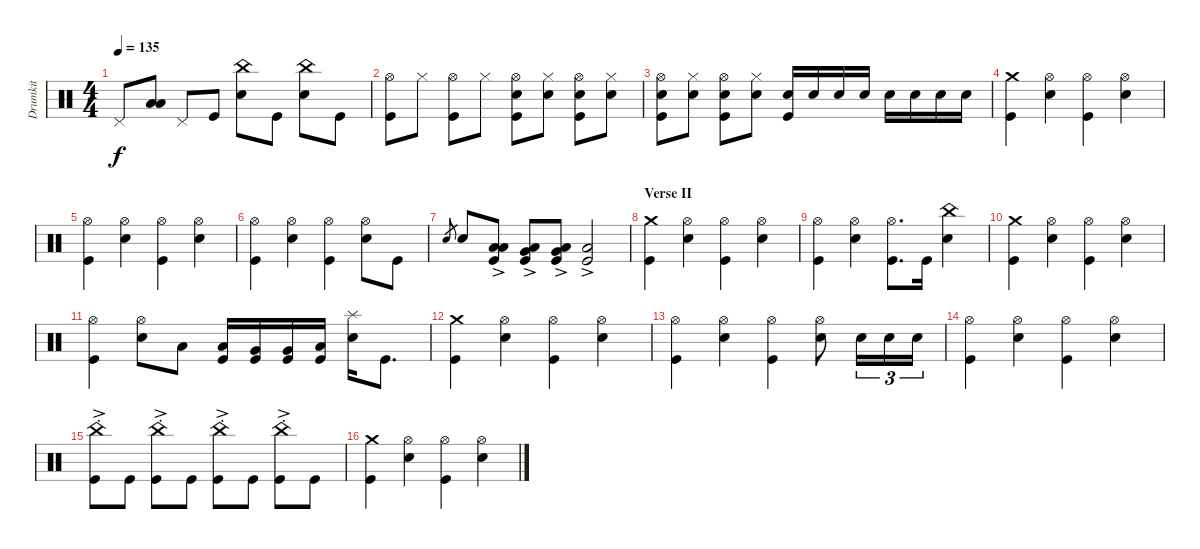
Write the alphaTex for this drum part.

\track ("Drumkit" "Drumkit") {instrument percussion}
\staff {score}
\articulation defaults
\ts (4 4)
\tempo 135
\clef neutral
\ks c "Pedal Hi-Hat (hit)".8{dy f}
("Low Tom (hit)" "Low Floor Tom (hit)").8 "Pedal Hi-Hat (hit)".8 "Kick (hit)".8 ("Snare (hit) 2" "China (hit)").8 "Kick (hit)".8 ("Snare (hit) 2" "China (hit)").8 "Kick (hit)".8 |
("Kick (hit)" "Hi-Hat (open)").8 "Hi-Hat (closed)".8 ("Hi-Hat (open)" "Kick (hit)").8 "Hi-Hat (closed)".8 ("Kick (hit)" "Hi-Hat (open)" "Snare (hit) 2").8 ("Hi-Hat (closed)" "Snare (hit) 2").8 ("Hi-Hat (open)" "Kick (hit)" "Snare (hit) 2").8 ("Hi-Hat (closed)" "Snare (hit) 2").8 |
("Kick (hit)" "Hi-Hat (open)" "Snare (hit) 2").8 ("Hi-Hat (closed)" "Snare (hit) 2").8 ("Hi-Hat (open)" "Kick (hit)" "Snare (hit) 2").8 ("Hi-Hat (closed)" "Snare (hit) 2").8 ("Snare (hit) 2" "Kick (hit)").16 "Snare (hit) 2".16 "Snare (hit) 2".16 "Snare (hit) 2".16 "Snare (hit) 2".16 "Snare (hit) 2".16 "Snare (hit) 2".16 "Snare (hit) 2".16 |
("Kick (hit)" "Crash medium (hit)").4 ("Snare (hit) 2" "Hi-Hat (open)").4 ("Kick (hit)" "Hi-Hat (open)").4 ("Snare (hit) 2" "Hi-Hat (open)").4 |
("Kick (hit)" "Hi-Hat (open)").4 ("Snare (hit) 2" "Hi-Hat (open)").4 ("Hi-Hat (open)" "Kick (hit)").4 ("Hi-Hat (open)" "Snare (hit) 2").4 |
("Kick (hit)" "Hi-Hat (open)").4 ("Snare (hit) 2" "Hi-Hat (open)").4 ("Hi-Hat (open)" "Kick (hit)").4 ("Hi-Hat (open)" "Snare (hit) 2").8 "Kick (hit)".8 |
"Snare (hit)".8{gr} "Snare (hit) 2".8 ("Kick (hit)" "Low Tom (hit)"{ac} "Low Floor Tom (hit)").8 ("Kick (hit)" "Low Floor Tom (hit)" "Very Low Tom (hit)"{ac}).8 ("Kick (hit)" "Very Low Tom (hit)"{ac} "Low Floor Tom (hit)").8 ("Kick (hit)" "Low Floor Tom (hit)"{ac}).2 |
\section ("" "Verse II")
("Kick (hit)" "Crash medium (hit)").4 ("Snare (hit) 2" "Hi-Hat (open)").4 ("Kick (hit)" "Hi-Hat (open)").4 ("Snare (hit) 2" "Hi-Hat (open)").4 |
("Kick (hit)" "Hi-Hat (open)").4 ("Snare (hit) 2" "Hi-Hat (open)").4 ("Kick (hit)" "Hi-Hat (open)").8{d} "Kick (hit)".16 ("Snare (hit) 2" "China (hit)").4 |
("Kick (hit)" "Crash medium (hit)").4 ("Snare (hit) 2" "Hi-Hat (open)").4 ("Kick (hit)" "Hi-Hat (open)").4 ("Snare (hit) 2" "Hi-Hat (open)").4 |
("Kick (hit)" "Hi-Hat (open)").4 ("Snare (hit) 2" "Hi-Hat (open)").8 "Low Tom (hit)".8 ("Kick (hit)" "Low Tom (hit)").16 ("Very Low Tom (hit)" "Kick (hit)").16 ("Very Low Tom (hit)" "Kick (hit)").16 ("Low Floor Tom (hit)" "Kick (hit)").16 ("Snare (hit) 2" "Splash (hit)").16 "Kick (hit)".8{d} |
("Kick (hit)" "Crash medium (hit)").4 ("Snare (hit) 2" "Hi-Hat (open)").4 ("Kick (hit)" "Hi-Hat (open)").4 ("Snare (hit) 2" "Hi-Hat (open)").4 |
("Kick (hit)" "Hi-Hat (open)").4 ("Snare (hit) 2" "Hi-Hat (open)").4 ("Kick (hit)" "Hi-Hat (open)").4 ("Snare (hit) 2" "Hi-Hat (open)").8 "Snare (hit) 2".16{tu (3 2)} "Snare (hit) 2".16{tu (3 2)} "Snare (hit) 2".16{tu (3 2)} |
("Kick (hit)" "Hi-Hat (open)").4 ("Snare (hit) 2" "Hi-Hat (open)").4 ("Kick (hit)" "Hi-Hat (open)").4 ("Snare (hit) 2" "Hi-Hat (open)").4 |
("Kick (hit)" "China (hit)"{ac st}).8 "Kick (hit)".8 ("Kick (hit)" "China (hit)"{ac st}).8 "Kick (hit)".8 ("Kick (hit)" "China (hit)"{ac st}).8 "Kick (hit)".8 ("Kick (hit)" "China (hit)"{ac st}).8 "Kick (hit)".8 |
("Kick (hit)" "Crash medium (hit)").4 ("Snare (hit) 2" "Hi-Hat (open)").4 ("Kick (hit)" "Hi-Hat (open)").4 ("Snare (hit) 2" "Hi-Hat (open)").4
